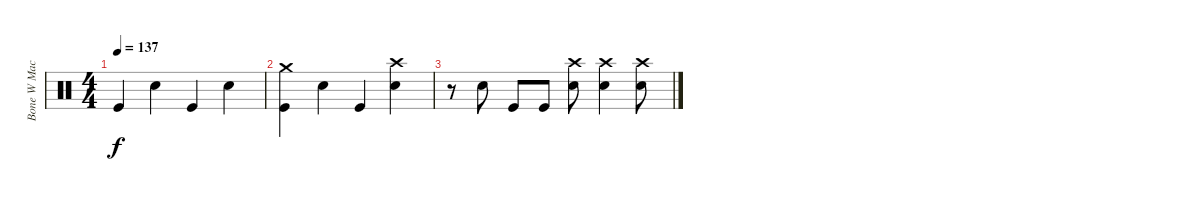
\track ("Bone W Machine Drums" "Bone W Mac") {instrument percussion}
\staff {score}
\articulation defaults
\ts (4 4)
\tempo 137
\clef neutral
\ks c "Kick (hit)".4{dy f} "Snare (hit) 2".4 "Kick (hit)".4 "Snare (hit) 2".4
|
("Crash medium (hit)" "Kick (hit)").4 "Snare (hit) 2".4 "Kick (hit)".4 ("Crash high (hit)" "Snare (hit) 2").4 |
r.8 "Snare (hit) 2".8 "Kick (hit)".8 "Kick (hit)".8 ("Crash high (hit)" "Snare (hit) 2").8 ("Crash high (hit)" "Snare (hit) 2").4 ("Crash high (hit)" "Snare (hit) 2").8
